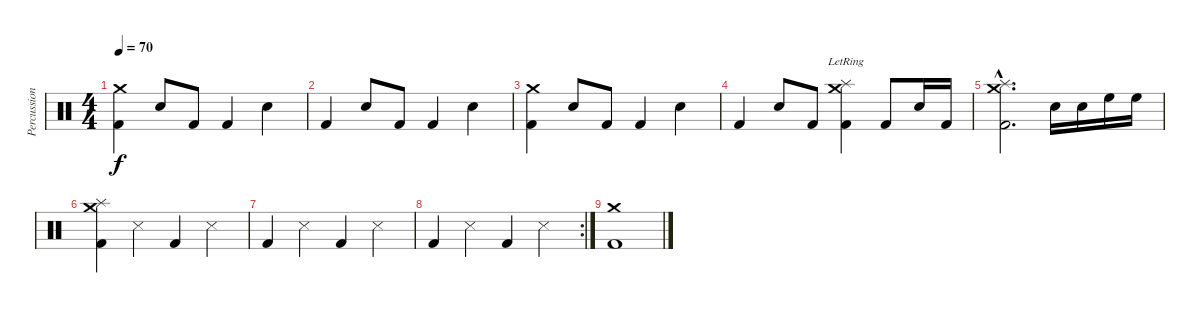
\track ("Percussion" "Percussion") {instrument percussion}
\staff {score}
\articulation defaults
\ts (4 4)
\tempo 70
\clef neutral
\ks c
("Kick (hit) 2" "Crash medium (hit)").4{dy f} "Electric Snare (hit)".8 "Kick (hit) 2".8 "Kick (hit) 2".4 "Electric Snare (hit)".4 |
"Kick (hit) 2".4 "Electric Snare (hit)".8 "Kick (hit) 2".8 "Kick (hit) 2".4 "Electric Snare (hit)".4 |
("Kick (hit) 2" "Crash medium (hit)").4 "Electric Snare (hit)".8 "Kick (hit) 2".8 "Kick (hit) 2".4 "Electric Snare (hit)".4 |
"Kick (hit) 2".4 "Electric Snare (hit)".8 "Kick (hit) 2".8 ("Kick (hit) 2"{lr} "Splash (hit)" "Crash medium (hit)").4 "Kick (hit) 2".8 "Electric Snare (hit)".16 "Kick (hit) 2".16 |
("Kick (hit) 2"{hac} "Crash medium (hit)"{hac} "Splash (hit)"{hac}).2{d} "Electric Snare (hit)".16 "Electric Snare (hit)".16 "High Floor Tom (hit)".16 "High Floor Tom (hit)".16 |
("Kick (hit) 2" "Crash medium (hit)" "Splash (hit)").4 "Snare (side stick) 3".4 "Kick (hit) 2".4 "Snare (side stick) 3".4 |
"Kick (hit) 2".4 "Snare (side stick) 3".4 "Kick (hit) 2".4 "Snare (side stick) 3".4 |
\rc 2 "Kick (hit) 2".4 "Snare (side stick) 3".4 "Kick (hit) 2".4 "Snare (side stick) 3".4
|
("Kick (hit) 2" "Crash medium (hit)").1
